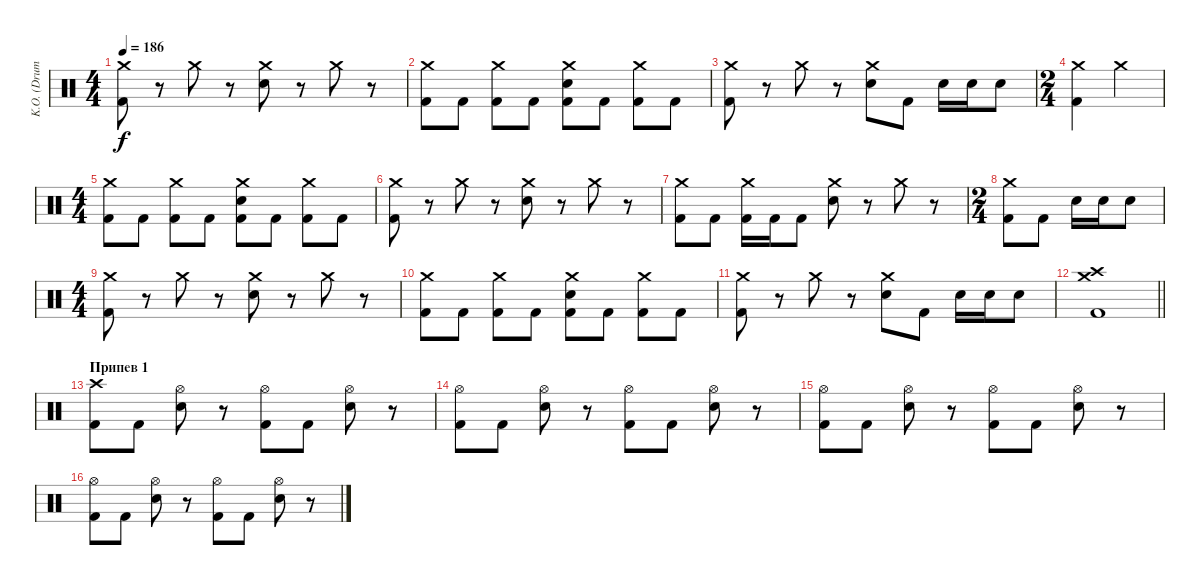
\track ("K.O. (Drums)" "K.O. (Drum") {instrument percussion}
\staff {score}
\articulation defaults
\ts (4 4)
\tempo 186
\clef neutral
\ks c
("Crash medium (hit)" "Kick (hit) 2").8{dy f} r.8 "Crash medium (hit)".8 r.8 ("Crash medium (hit)" "Electric Snare (hit)").8 r.8 "Crash medium (hit)".8 r.8 |
("Crash medium (hit)" "Kick (hit) 2").8 "Kick (hit) 2".8 ("Crash medium (hit)" "Kick (hit) 2").8 "Kick (hit) 2".8 ("Crash medium (hit)" "Electric Snare (hit)" "Kick (hit) 2").8 "Kick (hit) 2".8 ("Crash medium (hit)" "Kick (hit) 2").8 "Kick (hit) 2".8 |
("Crash medium (hit)" "Kick (hit) 2").8 r.8 "Crash medium (hit)".8 r.8 ("Crash medium (hit)" "Electric Snare (hit)").8 "Kick (hit) 2".8 "Electric Snare (hit)".16 "Electric Snare (hit)".16 "Electric Snare (hit)".8 |
\ts (2 4)
("Crash medium (hit)" "Kick (hit) 2").4 "Crash medium (hit)".4 |
\ts (4 4)
("Crash medium (hit)" "Kick (hit) 2").8 "Kick (hit) 2".8 ("Crash medium (hit)" "Kick (hit) 2").8 "Kick (hit) 2".8 ("Crash medium (hit)" "Electric Snare (hit)" "Kick (hit) 2").8 "Kick (hit) 2".8 ("Crash medium (hit)" "Kick (hit) 2").8 "Kick (hit) 2".8 |
("Crash medium (hit)" "Kick (hit) 2").8 r.8 "Crash medium (hit)".8 r.8 ("Crash medium (hit)" "Electric Snare (hit)").8 r.8 "Crash medium (hit)".8 r.8 |
("Crash medium (hit)" "Kick (hit) 2").8 "Kick (hit) 2".8 ("Crash medium (hit)" "Kick (hit) 2").16 "Kick (hit) 2".16 "Kick (hit) 2".8 ("Crash medium (hit)" "Electric Snare (hit)").8 r.8 "Crash medium (hit)".8 r.8 |
\ts (2 4)
("Crash medium (hit)" "Kick (hit) 2").8 "Kick (hit) 2".8 "Electric Snare (hit)".16 "Electric Snare (hit)".16 "Electric Snare (hit)".8 |
\ts (4 4)
("Crash medium (hit)" "Kick (hit) 2").8 r.8 "Crash medium (hit)".8 r.8 ("Crash medium (hit)" "Electric Snare (hit)").8 r.8 "Crash medium (hit)".8 r.8 |
("Crash medium (hit)" "Kick (hit) 2").8 "Kick (hit) 2".8 ("Crash medium (hit)" "Kick (hit) 2").8 "Kick (hit) 2".8 ("Crash medium (hit)" "Electric Snare (hit)" "Kick (hit) 2").8 "Kick (hit) 2".8 ("Crash medium (hit)" "Kick (hit) 2").8 "Kick (hit) 2".8 |
("Crash medium (hit)" "Kick (hit) 2").8 r.8 "Crash medium (hit)".8 r.8 ("Crash medium (hit)" "Electric Snare (hit)").8 "Kick (hit) 2".8 "Electric Snare (hit)".16 "Electric Snare (hit)".16 "Electric Snare (hit)".8 |
\barLineRight lightlight
("Crash medium (hit)" "Crash high (hit)" "Kick (hit) 2").1 |
\section ("" "Припев 1")
("Crash high (hit)" "Kick (hit) 2").8 "Kick (hit) 2".8 ("Hi-Hat (open)" "Electric Snare (hit)").8 r.8 ("Hi-Hat (open)" "Kick (hit) 2").8 "Kick (hit) 2".8 ("Hi-Hat (open)" "Electric Snare (hit)").8 r.8 |
("Hi-Hat (open)" "Kick (hit) 2").8 "Kick (hit) 2".8 ("Hi-Hat (open)" "Electric Snare (hit)").8 r.8 ("Hi-Hat (open)" "Kick (hit) 2").8 "Kick (hit) 2".8 ("Hi-Hat (open)" "Electric Snare (hit)").8 r.8 |
("Hi-Hat (open)" "Kick (hit) 2").8 "Kick (hit) 2".8 ("Hi-Hat (open)" "Electric Snare (hit)").8 r.8 ("Hi-Hat (open)" "Kick (hit) 2").8 "Kick (hit) 2".8 ("Hi-Hat (open)" "Electric Snare (hit)").8 r.8 |
("Hi-Hat (open)" "Kick (hit) 2").8 "Kick (hit) 2".8 ("Hi-Hat (open)" "Electric Snare (hit)").8 r.8 ("Hi-Hat (open)" "Kick (hit) 2").8 "Kick (hit) 2".8 ("Hi-Hat (open)" "Electric Snare (hit)").8 r.8
